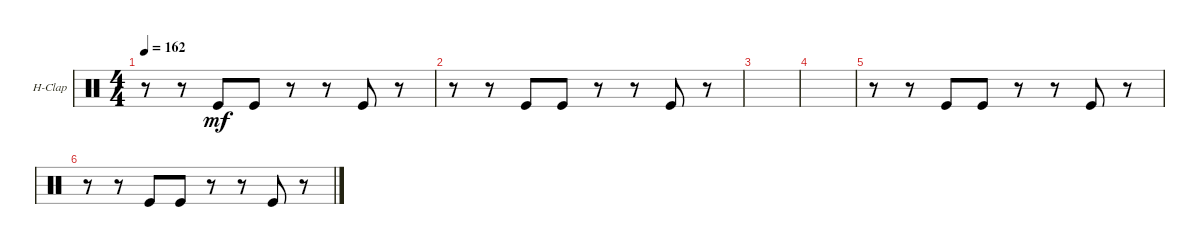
\defaultSystemsLayout 4
\bracketExtendMode groupsimilarinstruments
\firstSystemTrackNameOrientation horizontal
\otherSystemsTrackNameOrientation horizontal
\track ("Hand Clap" "H-Clap") {instrument percussion}
\staff {score}
\articulation defaults
\ts (4 4)
\tempo 162
\clef neutral
\ks c
r.8{dy mf} r.8 "Kick (hit)".8 "Kick (hit)".8 r.8 r.8 "Kick (hit)".8 r.8 |
r.8 r.8 "Kick (hit)".8 "Kick (hit)".8 r.8 r.8 "Kick (hit)".8 r.8 |
|
|
r.8 r.8 "Kick (hit)".8 "Kick (hit)".8 r.8 r.8 "Kick (hit)".8 r.8 |
r.8 r.8 "Kick (hit)".8 "Kick (hit)".8 r.8 r.8 "Kick (hit)".8 r.8
